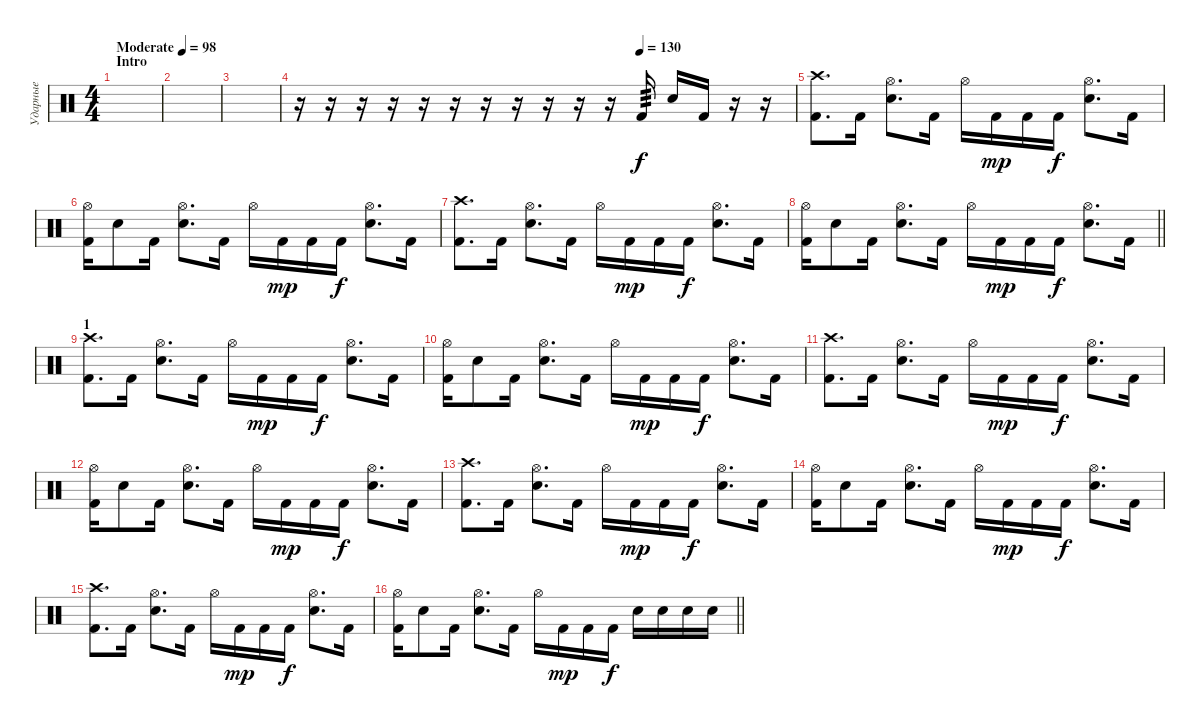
\track ("Ударные" "Ударные") {instrument percussion}
\staff {score}
\articulation defaults
\ts (4 4)
\section ("" "Intro")
\tempo (98 "Moderate")
\clef neutral
\ks c
|
|
|
\tempo (130 0.6875)
r.16 r.16 r.16 r.16 r.16 r.16 r.16 r.16 r.16 r.16 r.16 "Kick (hit) 2".16{tp 3} "Electric Snare (hit)".16 "Kick (hit) 2".16 r.16 r.16 |
("Kick (hit) 2" "Crash high (hit)").8{d} "Kick (hit) 2".16 ("Electric Snare (hit)" "Hi-Hat (open)").8{d} "Kick (hit) 2".16 "Hi-Hat (open)".16 "Kick (hit) 2".16{dy mp} "Kick (hit) 2".16 "Kick (hit) 2".16{dy f} ("Electric Snare (hit)" "Hi-Hat (open)").8{d} "Kick (hit) 2".16 |
("Kick (hit) 2" "Hi-Hat (open)").16 "Electric Snare (hit)".8 "Kick (hit) 2".16 ("Electric Snare (hit)" "Hi-Hat (open)").8{d} "Kick (hit) 2".16 "Hi-Hat (open)".16 "Kick (hit) 2".16{dy mp} "Kick (hit) 2".16 "Kick (hit) 2".16{dy f} ("Electric Snare (hit)" "Hi-Hat (open)").8{d} "Kick (hit) 2".16 |
("Kick (hit) 2" "Crash high (hit)").8{d} "Kick (hit) 2".16 ("Electric Snare (hit)" "Hi-Hat (open)").8{d} "Kick (hit) 2".16 "Hi-Hat (open)".16 "Kick (hit) 2".16{dy mp} "Kick (hit) 2".16 "Kick (hit) 2".16{dy f} ("Electric Snare (hit)" "Hi-Hat (open)").8{d} "Kick (hit) 2".16 |
\barLineRight lightlight
("Kick (hit) 2" "Hi-Hat (open)").16 "Electric Snare (hit)".8 "Kick (hit) 2".16 ("Electric Snare (hit)" "Hi-Hat (open)").8{d} "Kick (hit) 2".16 "Hi-Hat (open)".16 "Kick (hit) 2".16{dy mp} "Kick (hit) 2".16 "Kick (hit) 2".16{dy f} ("Electric Snare (hit)" "Hi-Hat (open)").8{d} "Kick (hit) 2".16 |
\section ("" "1")
("Kick (hit) 2" "Crash high (hit)").8{d} "Kick (hit) 2".16 ("Electric Snare (hit)" "Hi-Hat (open)").8{d} "Kick (hit) 2".16 "Hi-Hat (open)".16 "Kick (hit) 2".16{dy mp} "Kick (hit) 2".16 "Kick (hit) 2".16{dy f} ("Electric Snare (hit)" "Hi-Hat (open)").8{d} "Kick (hit) 2".16 |
("Kick (hit) 2" "Hi-Hat (open)").16 "Electric Snare (hit)".8 "Kick (hit) 2".16 ("Electric Snare (hit)" "Hi-Hat (open)").8{d} "Kick (hit) 2".16 "Hi-Hat (open)".16 "Kick (hit) 2".16{dy mp} "Kick (hit) 2".16 "Kick (hit) 2".16{dy f} ("Electric Snare (hit)" "Hi-Hat (open)").8{d} "Kick (hit) 2".16 |
("Kick (hit) 2" "Crash high (hit)").8{d} "Kick (hit) 2".16 ("Electric Snare (hit)" "Hi-Hat (open)").8{d} "Kick (hit) 2".16 "Hi-Hat (open)".16 "Kick (hit) 2".16{dy mp} "Kick (hit) 2".16 "Kick (hit) 2".16{dy f} ("Electric Snare (hit)" "Hi-Hat (open)").8{d} "Kick (hit) 2".16 |
("Kick (hit) 2" "Hi-Hat (open)").16 "Electric Snare (hit)".8 "Kick (hit) 2".16 ("Electric Snare (hit)" "Hi-Hat (open)").8{d} "Kick (hit) 2".16 "Hi-Hat (open)".16 "Kick (hit) 2".16{dy mp} "Kick (hit) 2".16 "Kick (hit) 2".16{dy f} ("Electric Snare (hit)" "Hi-Hat (open)").8{d} "Kick (hit) 2".16 |
("Kick (hit) 2" "Crash high (hit)").8{d} "Kick (hit) 2".16 ("Electric Snare (hit)" "Hi-Hat (open)").8{d} "Kick (hit) 2".16 "Hi-Hat (open)".16 "Kick (hit) 2".16{dy mp} "Kick (hit) 2".16 "Kick (hit) 2".16{dy f} ("Electric Snare (hit)" "Hi-Hat (open)").8{d} "Kick (hit) 2".16 |
("Kick (hit) 2" "Hi-Hat (open)").16 "Electric Snare (hit)".8 "Kick (hit) 2".16 ("Electric Snare (hit)" "Hi-Hat (open)").8{d} "Kick (hit) 2".16 "Hi-Hat (open)".16 "Kick (hit) 2".16{dy mp} "Kick (hit) 2".16 "Kick (hit) 2".16{dy f} ("Electric Snare (hit)" "Hi-Hat (open)").8{d} "Kick (hit) 2".16 |
("Kick (hit) 2" "Crash high (hit)").8{d} "Kick (hit) 2".16 ("Electric Snare (hit)" "Hi-Hat (open)").8{d} "Kick (hit) 2".16 "Hi-Hat (open)".16 "Kick (hit) 2".16{dy mp} "Kick (hit) 2".16 "Kick (hit) 2".16{dy f} ("Electric Snare (hit)" "Hi-Hat (open)").8{d} "Kick (hit) 2".16 |
\barLineRight lightlight
("Kick (hit) 2" "Hi-Hat (open)").16 "Electric Snare (hit)".8 "Kick (hit) 2".16 ("Electric Snare (hit)" "Hi-Hat (open)").8{d} "Kick (hit) 2".16 "Hi-Hat (open)".16 "Kick (hit) 2".16{dy mp} "Kick (hit) 2".16 "Kick (hit) 2".16{dy f} "Electric Snare (hit)".16 "Electric Snare (hit)".16 "Electric Snare (hit)".16 "Electric Snare (hit)".16
